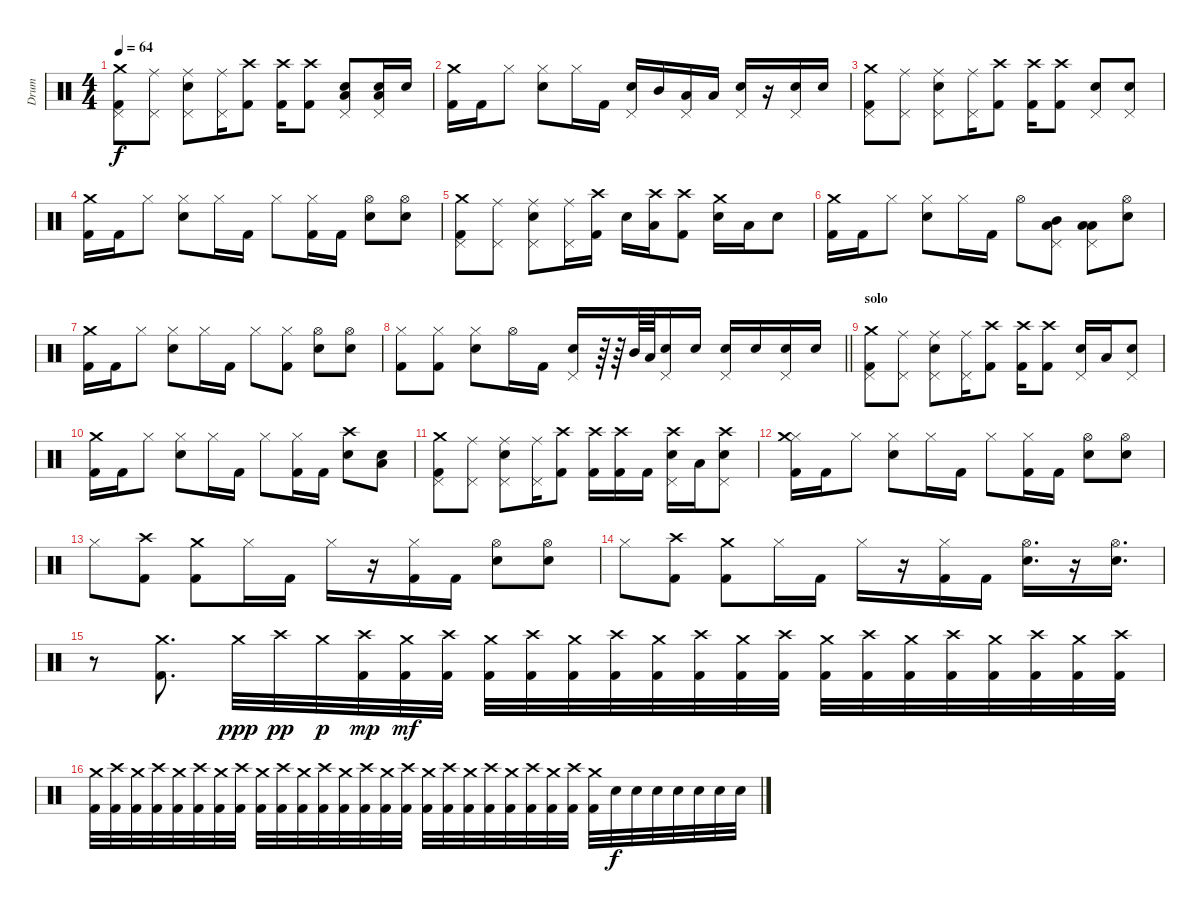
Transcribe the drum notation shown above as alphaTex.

\track ("Drum" "Drum") {instrument percussion}
\staff {score}
\articulation defaults
\ts (4 4)
\tempo 64
\clef neutral
\ks c
("Pedal Hi-Hat (hit)" "Kick (hit) 2" "Crash medium (hit)").8{dy f} ("Pedal Hi-Hat (hit)" "Ride (middle)").8 ("Electric Snare (hit)" "Pedal Hi-Hat (hit)" "Ride (middle)").8 ("Pedal Hi-Hat (hit)" "Ride (middle)").16 ("Kick (hit) 2" "Crash high (hit)").8 ("Kick (hit) 2" "Crash high (hit)").16 ("Kick (hit) 2" "Crash high (hit)").8 ("Electric Snare (hit)" "Pedal Hi-Hat (hit)" "Low Floor Tom (hit)").8 ("Electric Snare (hit)" "Pedal Hi-Hat (hit)" "Low Tom (hit)").16 "Electric Snare (hit)".16 |
("Kick (hit) 2" "Crash medium (hit)").16 "Kick (hit) 2".16 "Hi-Hat (closed)".8 ("Electric Snare (hit)" "Hi-Hat (closed)").8 "Hi-Hat (closed)".16 "Kick (hit) 2".16 ("Electric Snare (hit)" "Pedal Hi-Hat (hit)").16 "Mid Tom (hit)".16 ("Pedal Hi-Hat (hit)" "Low Tom (hit)").16 "Low Floor Tom (hit)".16 ("Electric Snare (hit)" "Pedal Hi-Hat (hit)").16 r.16 ("Electric Snare (hit)" "Pedal Hi-Hat (hit)").16 "Electric Snare (hit)".16 |
("Pedal Hi-Hat (hit)" "Kick (hit) 2" "Crash medium (hit)").8 ("Pedal Hi-Hat (hit)" "Ride (middle)").8 ("Electric Snare (hit)" "Pedal Hi-Hat (hit)" "Ride (middle)").8 ("Pedal Hi-Hat (hit)" "Ride (middle)").16 ("Kick (hit) 2" "Crash high (hit)").8 ("Kick (hit) 2" "Crash high (hit)").16 ("Kick (hit) 2" "Crash high (hit)").8 ("Electric Snare (hit)" "Pedal Hi-Hat (hit)").8 ("Electric Snare (hit)" "Pedal Hi-Hat (hit)").8 |
("Kick (hit) 2" "Crash medium (hit)").16 "Kick (hit) 2".16 "Hi-Hat (closed)".8 ("Electric Snare (hit)" "Hi-Hat (closed)").8 "Hi-Hat (closed)".16 "Kick (hit) 2".16 "Hi-Hat (closed)".8 ("Hi-Hat (closed)" "Kick (hit) 2").16 "Kick (hit) 2".16 ("Electric Snare (hit)" "Hi-Hat (open)").8 ("Electric Snare (hit)" "Hi-Hat (open)").8 |
("Pedal Hi-Hat (hit)" "Kick (hit) 2" "Crash medium (hit)").8 ("Pedal Hi-Hat (hit)" "Ride (middle)").8 ("Electric Snare (hit)" "Pedal Hi-Hat (hit)" "Ride (middle)").8 ("Pedal Hi-Hat (hit)" "Ride (middle)").16 ("Kick (hit) 2" "Crash high (hit)").16 "Electric Snare (hit)".16 ("Low Floor Tom (hit)" "Crash high (hit)").16 ("Kick (hit) 2" "Crash high (hit)").8 ("Electric Snare (hit)" "Crash medium (hit)").16 "Low Floor Tom (hit)".16 "Electric Snare (hit)".8 |
("Kick (hit) 2" "Crash medium (hit)").16 "Kick (hit) 2".16 "Hi-Hat (closed)".8 ("Electric Snare (hit)" "Hi-Hat (closed)").8 "Hi-Hat (closed)".16 "Kick (hit) 2".16 "Hi-Hat (open)".8 ("Pedal Hi-Hat (hit)" "Low Tom (hit)" "Mid Tom (hit)").8 ("Pedal Hi-Hat (hit)" "Low Tom (hit)" "Low Floor Tom (hit)").8 ("Electric Snare (hit)" "Hi-Hat (open)").8 |
("Kick (hit) 2" "Crash medium (hit)").16 "Kick (hit) 2".16 "Hi-Hat (closed)".8 ("Electric Snare (hit)" "Hi-Hat (closed)").8 "Hi-Hat (closed)".16 "Kick (hit) 2".16 "Hi-Hat (closed)".8 ("Hi-Hat (closed)" "Kick (hit) 2").8 ("Electric Snare (hit)" "Hi-Hat (open)").8 ("Electric Snare (hit)" "Hi-Hat (open)").8 |
\barLineRight lightlight
("Hi-Hat (closed)" "Kick (hit) 2").8 ("Hi-Hat (closed)" "Kick (hit) 2").8 ("Electric Snare (hit)" "Hi-Hat (closed)").8 "Hi-Hat (open)".16 "Kick (hit) 2".16 ("Electric Snare (hit)" "Pedal Hi-Hat (hit)").16 r.64 r.64 "Mid Tom (hit)".64 "Low Tom (hit)".64 ("Electric Snare (hit)" "Pedal Hi-Hat (hit)").16 "Electric Snare (hit)".16 ("Electric Snare (hit)" "Pedal Hi-Hat (hit)").16 "Electric Snare (hit)".16 ("Electric Snare (hit)" "Pedal Hi-Hat (hit)").16 "Electric Snare (hit)".16 |
\section ("" "solo")
("Pedal Hi-Hat (hit)" "Kick (hit) 2" "Crash medium (hit)").8 ("Pedal Hi-Hat (hit)" "Ride (middle)").8 ("Electric Snare (hit)" "Pedal Hi-Hat (hit)" "Ride (middle)").8 ("Pedal Hi-Hat (hit)" "Ride (middle)").16 ("Kick (hit) 2" "Crash high (hit)").8 ("Kick (hit) 2" "Crash high (hit)").16 ("Kick (hit) 2" "Crash high (hit)").8 ("Electric Snare (hit)" "Pedal Hi-Hat (hit)").16 "Low Floor Tom (hit)".16 ("Electric Snare (hit)" "Pedal Hi-Hat (hit)").8 |
("Kick (hit) 2" "Crash medium (hit)").16 "Kick (hit) 2".16 "Hi-Hat (closed)".8 ("Electric Snare (hit)" "Hi-Hat (closed)").8 "Hi-Hat (closed)".16 "Kick (hit) 2".16 "Hi-Hat (closed)".8 ("Hi-Hat (closed)" "Kick (hit) 2").16 "Kick (hit) 2".16 ("Electric Snare (hit)" "Crash high (hit)").8 ("Electric Snare (hit)" "Low Tom (hit)").8 |
("Pedal Hi-Hat (hit)" "Kick (hit) 2" "Crash medium (hit)").8 ("Pedal Hi-Hat (hit)" "Ride (middle)").8 ("Electric Snare (hit)" "Pedal Hi-Hat (hit)" "Ride (middle)").8 ("Pedal Hi-Hat (hit)" "Ride (middle)").16 ("Kick (hit) 2" "Crash high (hit)").8 ("Kick (hit) 2" "Crash high (hit)").16 ("Kick (hit) 2" "Crash high (hit)").16 "Kick (hit) 2".16 ("Electric Snare (hit)" "Pedal Hi-Hat (hit)" "Crash high (hit)").16 "Low Floor Tom (hit)".16 ("Electric Snare (hit)" "Pedal Hi-Hat (hit)" "Crash high (hit)").8 |
("Hi-Hat (closed)" "Kick (hit) 2" "Crash medium (hit)").16 "Kick (hit) 2".16 "Hi-Hat (closed)".8 ("Electric Snare (hit)" "Hi-Hat (closed)").8 "Hi-Hat (closed)".16 "Kick (hit) 2".16 "Hi-Hat (closed)".8 ("Hi-Hat (closed)" "Kick (hit) 2").16 "Kick (hit) 2".16 ("Electric Snare (hit)" "Hi-Hat (open)").8 ("Electric Snare (hit)" "Hi-Hat (open)").8 |
"Hi-Hat (closed)".8 ("Kick (hit) 2" "Crash high (hit)").8 ("Kick (hit) 2" "Crash medium (hit)").8 "Hi-Hat (closed)".16 "Kick (hit) 2".16 "Hi-Hat (closed)".16 r.16 ("Hi-Hat (closed)" "Kick (hit) 2").16 "Kick (hit) 2".16 ("Electric Snare (hit)" "Hi-Hat (open)").8 ("Electric Snare (hit)" "Hi-Hat (open)").8 |
"Hi-Hat (closed)".8 ("Kick (hit) 2" "Crash high (hit)").8 ("Kick (hit) 2" "Crash medium (hit)").8 "Hi-Hat (closed)".16 "Kick (hit) 2".16 "Hi-Hat (closed)".16 r.16 ("Hi-Hat (closed)" "Kick (hit) 2").16 "Kick (hit) 2".16 ("Electric Snare (hit)" "Hi-Hat (open)").16{d} r.16 ("Electric Snare (hit)" "Hi-Hat (open)").16{d} |
r.8 ("Kick (hit) 2" "Crash medium (hit)").8{d} "Crash medium (hit)".32{dy ppp} "Crash high (hit)".32{dy pp} "Crash medium (hit)".32{dy p} ("Crash high (hit)" "Kick (hit) 2").32{dy mp} ("Crash medium (hit)" "Kick (hit) 2").32{dy mf} ("Crash high (hit)" "Kick (hit) 2").32 ("Crash medium (hit)" "Kick (hit) 2").32 ("Crash high (hit)" "Kick (hit) 2").32 ("Crash medium (hit)" "Kick (hit) 2").32 ("Crash high (hit)" "Kick (hit) 2").32 ("Crash medium (hit)" "Kick (hit) 2").32 ("Crash high (hit)" "Kick (hit) 2").32 ("Crash medium (hit)" "Kick (hit) 2").32 ("Crash high (hit)" "Kick (hit) 2").32 ("Crash medium (hit)" "Kick (hit) 2").32 ("Crash high (hit)" "Kick (hit) 2").32 ("Crash medium (hit)" "Kick (hit) 2").32 ("Crash high (hit)" "Kick (hit) 2").32 ("Crash medium (hit)" "Kick (hit) 2").32 ("Crash high (hit)" "Kick (hit) 2").32 ("Crash medium (hit)" "Kick (hit) 2").32 ("Crash high (hit)" "Kick (hit) 2").32 |
("Crash medium (hit)" "Kick (hit) 2").32 ("Crash high (hit)" "Kick (hit) 2").32 ("Crash medium (hit)" "Kick (hit) 2").32 ("Crash high (hit)" "Kick (hit) 2").32 ("Crash medium (hit)" "Kick (hit) 2").32 ("Crash high (hit)" "Kick (hit) 2").32 ("Crash medium (hit)" "Kick (hit) 2").32 ("Crash high (hit)" "Kick (hit) 2").32 ("Crash medium (hit)" "Kick (hit) 2").32 ("Crash high (hit)" "Kick (hit) 2").32 ("Crash medium (hit)" "Kick (hit) 2").32 ("Crash high (hit)" "Kick (hit) 2").32 ("Crash medium (hit)" "Kick (hit) 2").32 ("Crash high (hit)" "Kick (hit) 2").32 ("Crash medium (hit)" "Kick (hit) 2").32 ("Crash high (hit)" "Kick (hit) 2").32 ("Crash medium (hit)" "Kick (hit) 2").32 ("Crash high (hit)" "Kick (hit) 2").32 ("Crash medium (hit)" "Kick (hit) 2").32 ("Crash high (hit)" "Kick (hit) 2").32 ("Crash medium (hit)" "Kick (hit) 2").32 ("Crash high (hit)" "Kick (hit) 2").32 ("Crash medium (hit)" "Kick (hit) 2").32 ("Crash high (hit)" "Kick (hit) 2").32 ("Crash medium (hit)" "Kick (hit) 2").32 "Electric Snare (hit)".32{dy f} "Electric Snare (hit)".32 "Electric Snare (hit)".32 "Electric Snare (hit)".32 "Electric Snare (hit)".32 "Electric Snare (hit)".32 "Electric Snare (hit)".32
